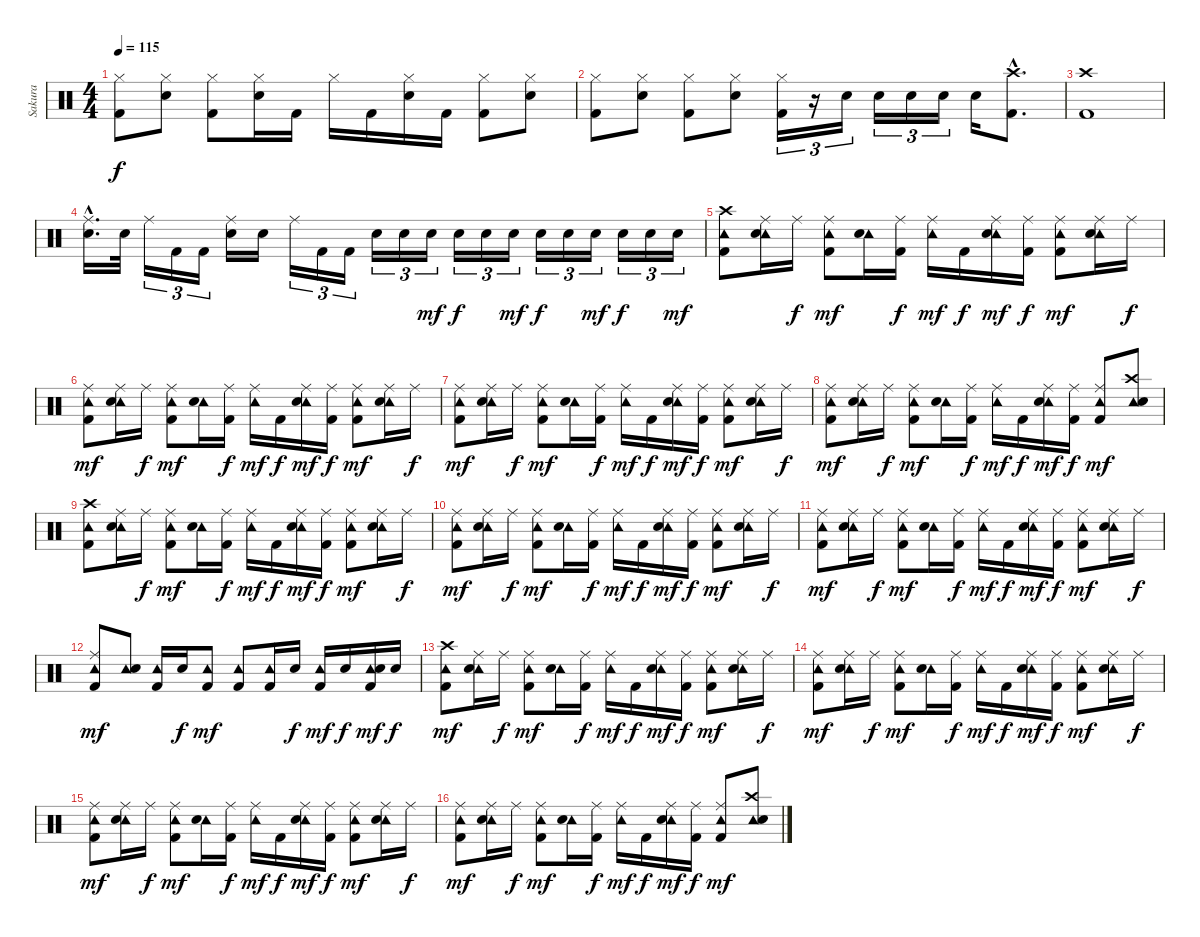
\track ("Sakura" "Sakura") {instrument percussion}
\staff {score}
\articulation defaults
\ts (4 4)
\tempo 115
\clef neutral
\ks c
("Hi-Hat (closed)" "Kick (hit) 2").8{dy f} ("Hi-Hat (closed)" "Electric Snare (hit)").8 ("Hi-Hat (closed)" "Kick (hit) 2").8 ("Hi-Hat (closed)" "Electric Snare (hit)").16 "Kick (hit) 2".16 "Hi-Hat (closed)".16 "Kick (hit) 2".16 ("Hi-Hat (closed)" "Electric Snare (hit)").16 "Kick (hit) 2".16 ("Hi-Hat (closed)" "Kick (hit) 2").8 ("Hi-Hat (closed)" "Electric Snare (hit)").8 |
("Hi-Hat (closed)" "Kick (hit) 2").8 ("Hi-Hat (closed)" "Electric Snare (hit)").8 ("Hi-Hat (closed)" "Kick (hit) 2").8 ("Hi-Hat (closed)" "Electric Snare (hit)").8 ("Hi-Hat (closed)" "Kick (hit) 2").16{tu (3 2)} r.16{tu (3 2)} "Electric Snare (hit)".16{tu (3 2)} "Electric Snare (hit)".16{tu (3 2)} "Electric Snare (hit)".16{tu (3 2)} "Electric Snare (hit)".16{tu (3 2)} "Electric Snare (hit)".16 ("Crash high (hit)"{hac} "Kick (hit) 2"{hac}).8{d} |
("Crash high (hit)" "Kick (hit) 2").1 |
("Ride (middle)"{hac} "Electric Snare (hit)"{hac}).16{d} "Electric Snare (hit)".32 "Ride (middle)".16{tu (3 2)} "Kick (hit) 2".16{tu (3 2)} "Kick (hit) 2".16{tu (3 2)} ("Ride (middle)" "Electric Snare (hit)").16 "Electric Snare (hit)".16 "Ride (middle)".16{tu (3 2)} "Kick (hit) 2".16{tu (3 2)} "Kick (hit) 2".16{tu (3 2)} "Electric Snare (hit)".16{tu (3 2)} "Electric Snare (hit)".16{tu (3 2)} "Electric Snare (hit)".16{tu (3 2) dy mf} "Electric Snare (hit)".16{tu (3 2) dy f} "Electric Snare (hit)".16{tu (3 2)} "Electric Snare (hit)".16{tu (3 2) dy mf} "Electric Snare (hit)".16{tu (3 2) dy f} "Electric Snare (hit)".16{tu (3 2)} "Electric Snare (hit)".16{tu (3 2) dy mf} "Electric Snare (hit)".16{tu (3 2) dy f} "Electric Snare (hit)".16{tu (3 2)} "Electric Snare (hit)".16{tu (3 2) dy mf} |
("Crash high (hit)" "Tambourine (hit)" "Kick (hit) 2").8 ("Ride (middle)" "Tambourine (hit)" "Electric Snare (hit)").16 "Ride (middle)".16{dy f} ("Ride (middle)" "Tambourine (hit)" "Kick (hit) 2").8{dy mf} ("Tambourine (hit)" "Electric Snare (hit)").16 ("Ride (middle)" "Kick (hit) 2").16{dy f} ("Ride (middle)" "Tambourine (hit)").16{dy mf} "Kick (hit) 2".16{dy f} ("Ride (middle)" "Tambourine (hit)" "Electric Snare (hit)").16{dy mf} ("Ride (middle)" "Kick (hit) 2").16{dy f} ("Ride (middle)" "Tambourine (hit)" "Kick (hit) 2").8{dy mf} ("Ride (middle)" "Tambourine (hit)" "Electric Snare (hit)").16 "Ride (middle)".16{dy f} |
("Ride (middle)" "Tambourine (hit)" "Kick (hit) 2").8{dy mf} ("Ride (middle)" "Tambourine (hit)" "Electric Snare (hit)").16 "Ride (middle)".16{dy f} ("Ride (middle)" "Tambourine (hit)" "Kick (hit) 2").8{dy mf} ("Tambourine (hit)" "Electric Snare (hit)").16 ("Ride (middle)" "Kick (hit) 2").16{dy f} ("Ride (middle)" "Tambourine (hit)").16{dy mf} "Kick (hit) 2".16{dy f} ("Ride (middle)" "Tambourine (hit)" "Electric Snare (hit)").16{dy mf} ("Ride (middle)" "Kick (hit) 2").16{dy f} ("Ride (middle)" "Tambourine (hit)" "Kick (hit) 2").8{dy mf} ("Ride (middle)" "Tambourine (hit)" "Electric Snare (hit)").16 "Ride (middle)".16{dy f} |
("Ride (middle)" "Tambourine (hit)" "Kick (hit) 2").8{dy mf} ("Ride (middle)" "Tambourine (hit)" "Electric Snare (hit)").16 "Ride (middle)".16{dy f} ("Ride (middle)" "Tambourine (hit)" "Kick (hit) 2").8{dy mf} ("Tambourine (hit)" "Electric Snare (hit)").16 ("Ride (middle)" "Kick (hit) 2").16{dy f} ("Ride (middle)" "Tambourine (hit)").16{dy mf} "Kick (hit) 2".16{dy f} ("Ride (middle)" "Tambourine (hit)" "Electric Snare (hit)").16{dy mf} ("Ride (middle)" "Kick (hit) 2").16{dy f} ("Ride (middle)" "Tambourine (hit)" "Kick (hit) 2").8{dy mf} ("Ride (middle)" "Tambourine (hit)" "Electric Snare (hit)").16 "Ride (middle)".16{dy f} |
("Ride (middle)" "Tambourine (hit)" "Kick (hit) 2").8{dy mf} ("Ride (middle)" "Tambourine (hit)" "Electric Snare (hit)").16 "Ride (middle)".16{dy f} ("Ride (middle)" "Tambourine (hit)" "Kick (hit) 2").8{dy mf} ("Tambourine (hit)" "Electric Snare (hit)").16 ("Ride (middle)" "Kick (hit) 2").16{dy f} ("Ride (middle)" "Tambourine (hit)").16{dy mf} "Kick (hit) 2".16{dy f} ("Ride (middle)" "Tambourine (hit)" "Electric Snare (hit)").16{dy mf} ("Ride (middle)" "Kick (hit) 2").16{dy f} ("Ride (middle)" "Tambourine (hit)" "Kick (hit) 2").8{dy mf} ("Crash high (hit)" "Tambourine (hit)" "Electric Snare (hit)").8 |
("Crash high (hit)" "Tambourine (hit)" "Kick (hit) 2").8 ("Ride (middle)" "Tambourine (hit)" "Electric Snare (hit)").16 "Ride (middle)".16{dy f} ("Ride (middle)" "Tambourine (hit)" "Kick (hit) 2").8{dy mf} ("Tambourine (hit)" "Electric Snare (hit)").16 ("Ride (middle)" "Kick (hit) 2").16{dy f} ("Ride (middle)" "Tambourine (hit)").16{dy mf} "Kick (hit) 2".16{dy f} ("Ride (middle)" "Tambourine (hit)" "Electric Snare (hit)").16{dy mf} ("Ride (middle)" "Kick (hit) 2").16{dy f} ("Ride (middle)" "Tambourine (hit)" "Kick (hit) 2").8{dy mf} ("Ride (middle)" "Tambourine (hit)" "Electric Snare (hit)").16 "Ride (middle)".16{dy f} |
("Ride (middle)" "Tambourine (hit)" "Kick (hit) 2").8{dy mf} ("Ride (middle)" "Tambourine (hit)" "Electric Snare (hit)").16 "Ride (middle)".16{dy f} ("Ride (middle)" "Tambourine (hit)" "Kick (hit) 2").8{dy mf} ("Tambourine (hit)" "Electric Snare (hit)").16 ("Ride (middle)" "Kick (hit) 2").16{dy f} ("Ride (middle)" "Tambourine (hit)").16{dy mf} "Kick (hit) 2".16{dy f} ("Ride (middle)" "Tambourine (hit)" "Electric Snare (hit)").16{dy mf} ("Ride (middle)" "Kick (hit) 2").16{dy f} ("Ride (middle)" "Tambourine (hit)" "Kick (hit) 2").8{dy mf} ("Ride (middle)" "Tambourine (hit)" "Electric Snare (hit)").16 "Ride (middle)".16{dy f} |
("Ride (middle)" "Tambourine (hit)" "Kick (hit) 2").8{dy mf} ("Ride (middle)" "Tambourine (hit)" "Electric Snare (hit)").16 "Ride (middle)".16{dy f} ("Ride (middle)" "Tambourine (hit)" "Kick (hit) 2").8{dy mf} ("Tambourine (hit)" "Electric Snare (hit)").16 ("Ride (middle)" "Kick (hit) 2").16{dy f} ("Ride (middle)" "Tambourine (hit)").16{dy mf} "Kick (hit) 2".16{dy f} ("Ride (middle)" "Tambourine (hit)" "Electric Snare (hit)").16{dy mf} ("Ride (middle)" "Kick (hit) 2").16{dy f} ("Ride (middle)" "Tambourine (hit)" "Kick (hit) 2").8{dy mf} ("Ride (middle)" "Tambourine (hit)" "Electric Snare (hit)").16 "Ride (middle)".16{dy f} |
("Ride (middle)" "Tambourine (hit)" "Kick (hit) 2").8{dy mf} ("Tambourine (hit)" "Electric Snare (hit)").8 ("Tambourine (hit)" "Kick (hit) 2").16 "Electric Snare (hit)".16{dy f} ("Tambourine (hit)" "Kick (hit) 2").8{dy mf} ("Tambourine (hit)" "Kick (hit) 2").8 ("Tambourine (hit)" "Kick (hit) 2").16 "Electric Snare (hit)".16{dy f} ("Tambourine (hit)" "Kick (hit) 2").16{dy mf} "Electric Snare (hit)".16{dy f} ("Tambourine (hit)" "Electric Snare (hit)" "Kick (hit) 2").16{dy mf} "Electric Snare (hit)".16{dy f} |
("Crash high (hit)" "Tambourine (hit)" "Kick (hit) 2").8{dy mf} ("Ride (middle)" "Tambourine (hit)" "Electric Snare (hit)").16 "Ride (middle)".16{dy f} ("Ride (middle)" "Tambourine (hit)" "Kick (hit) 2").8{dy mf} ("Tambourine (hit)" "Electric Snare (hit)").16 ("Ride (middle)" "Kick (hit) 2").16{dy f} ("Ride (middle)" "Tambourine (hit)").16{dy mf} "Kick (hit) 2".16{dy f} ("Ride (middle)" "Tambourine (hit)" "Electric Snare (hit)").16{dy mf} ("Ride (middle)" "Kick (hit) 2").16{dy f} ("Ride (middle)" "Tambourine (hit)" "Kick (hit) 2").8{dy mf} ("Ride (middle)" "Tambourine (hit)" "Electric Snare (hit)").16 "Ride (middle)".16{dy f} |
("Ride (middle)" "Tambourine (hit)" "Kick (hit) 2").8{dy mf} ("Ride (middle)" "Tambourine (hit)" "Electric Snare (hit)").16 "Ride (middle)".16{dy f} ("Ride (middle)" "Tambourine (hit)" "Kick (hit) 2").8{dy mf} ("Tambourine (hit)" "Electric Snare (hit)").16 ("Ride (middle)" "Kick (hit) 2").16{dy f} ("Ride (middle)" "Tambourine (hit)").16{dy mf} "Kick (hit) 2".16{dy f} ("Ride (middle)" "Tambourine (hit)" "Electric Snare (hit)").16{dy mf} ("Ride (middle)" "Kick (hit) 2").16{dy f} ("Ride (middle)" "Tambourine (hit)" "Kick (hit) 2").8{dy mf} ("Ride (middle)" "Tambourine (hit)" "Electric Snare (hit)").16 "Ride (middle)".16{dy f} |
("Ride (middle)" "Tambourine (hit)" "Kick (hit) 2").8{dy mf} ("Ride (middle)" "Tambourine (hit)" "Electric Snare (hit)").16 "Ride (middle)".16{dy f} ("Ride (middle)" "Tambourine (hit)" "Kick (hit) 2").8{dy mf} ("Tambourine (hit)" "Electric Snare (hit)").16 ("Ride (middle)" "Kick (hit) 2").16{dy f} ("Ride (middle)" "Tambourine (hit)").16{dy mf} "Kick (hit) 2".16{dy f} ("Ride (middle)" "Tambourine (hit)" "Electric Snare (hit)").16{dy mf} ("Ride (middle)" "Kick (hit) 2").16{dy f} ("Ride (middle)" "Tambourine (hit)" "Kick (hit) 2").8{dy mf} ("Ride (middle)" "Tambourine (hit)" "Electric Snare (hit)").16 "Ride (middle)".16{dy f} |
("Ride (middle)" "Tambourine (hit)" "Kick (hit) 2").8{dy mf} ("Ride (middle)" "Tambourine (hit)" "Electric Snare (hit)").16 "Ride (middle)".16{dy f} ("Ride (middle)" "Tambourine (hit)" "Kick (hit) 2").8{dy mf} ("Tambourine (hit)" "Electric Snare (hit)").16 ("Ride (middle)" "Kick (hit) 2").16{dy f} ("Ride (middle)" "Tambourine (hit)").16{dy mf} "Kick (hit) 2".16{dy f} ("Ride (middle)" "Tambourine (hit)" "Electric Snare (hit)").16{dy mf} ("Ride (middle)" "Kick (hit) 2").16{dy f} ("Ride (middle)" "Tambourine (hit)" "Kick (hit) 2").8{dy mf} ("Crash high (hit)" "Tambourine (hit)" "Electric Snare (hit)").8
